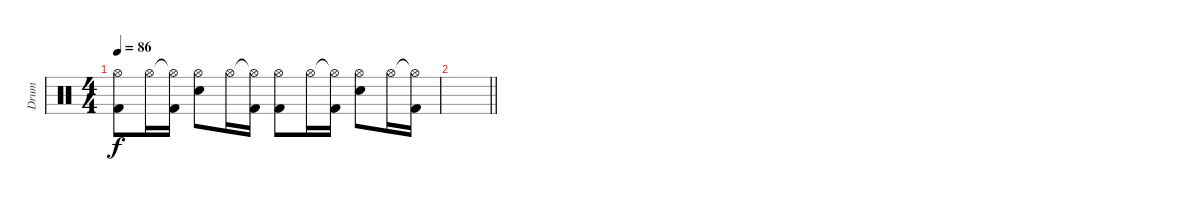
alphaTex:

\track ("Drum" "Drum") {instrument percussion}
\staff {score}
\articulation defaults
\ts (4 4)
\tempo 86
\clef neutral
\ks c
("Hi-Hat (open)" "Kick (hit) 2").8{dy f} "Hi-Hat (open)".16 ("Hi-Hat (open)"{t} "Kick (hit) 2").16 ("Hi-Hat (open)" "Snare (hit) 2").8 "Hi-Hat (open)".16 ("Hi-Hat (open)"{t} "Kick (hit) 2").16 ("Hi-Hat (open)" "Kick (hit) 2").8 "Hi-Hat (open)".16 ("Hi-Hat (open)"{t} "Kick (hit) 2").16 ("Hi-Hat (open)" "Snare (hit) 2").8 "Hi-Hat (open)".16 ("Hi-Hat (open)"{t} "Kick (hit) 2").16 |
\barLineRight lightlight
